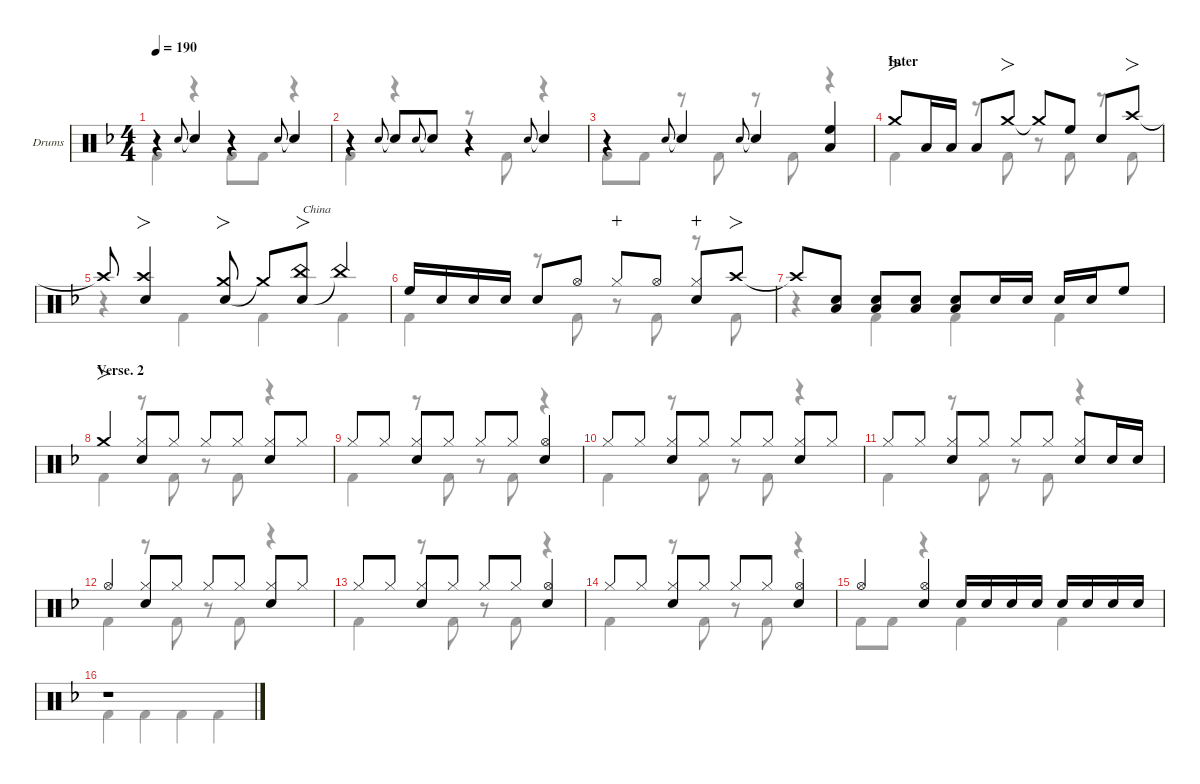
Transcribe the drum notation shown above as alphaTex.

\defaultSystemsLayout 4
\hideDynamics
\bracketExtendMode nobrackets
\firstSystemTrackNameOrientation horizontal
\track ("Drums" "Drums") {defaultSystemsLayout 4 instrument percussion}
\staff {score}
\articulation defaults
\voice
\ts (4 4)
\tempo 190
\clef neutral
\ks dminor
r.4{dy f} "Snare (hit) 2"{acc forcenatural}.8{gr onbeat} "Snare (hit) 2"{t acc forcenatural}.4 r.4 "Snare (hit) 2"{acc forcenatural}.8{gr onbeat} "Snare (hit) 2"{t acc forcenatural}.4 |
r.4 "Snare (hit) 2"{acc forcenatural}.8{gr onbeat} "Snare (hit) 2"{t acc forcenatural}.8 "Snare (hit) 2"{acc forcenatural}.8{gr onbeat} "Snare (hit) 2"{t acc forcenatural}.8 r.4 "Snare (hit) 2"{acc forcenatural}.8{gr onbeat} "Snare (hit) 2"{t acc forcenatural}.4 |
r.4 "Snare (hit) 2"{acc forcenatural}.8{gr onbeat} "Snare (hit) 2"{t acc forcenatural}.4 "Snare (hit) 2"{acc forcenatural}.8{gr onbeat} "Snare (hit) 2"{t acc forcenatural}.4 ("Low Tom (hit)"{acc forcenatural} "High Floor Tom (hit)"{acc forcenatural}).4 |
\section ("" "Inter")
"Crash medium (hit)"{acc forcenatural}.8{fo} "Low Tom (hit)"{acc forcenatural}.16 "Low Tom (hit)"{acc forcenatural}.16{beam split} "Low Tom (hit)"{acc forcenatural}.8 "Crash medium (hit)"{acc forcenatural}.8{fo} "Crash medium (hit)"{t acc forcenatural}.8 "High Floor Tom (hit)"{acc forcenatural}.8 "Snare (hit) 2"{acc forcenatural}.8 "Crash high (hit)"{acc forcenatural}.8{fo} |
"Crash high (hit)"{t acc forcenatural}.8 ("Snare (hit) 2"{acc forcenatural} "Crash high (hit)"{acc forcenatural}).4{fo} ("Snare (hit) 2"{acc forcenatural} "Crash medium (hit)"{acc forcenatural}).8{fo} "Crash medium (hit)"{t acc forcenatural}.8 ("Snare (hit) 2"{acc forcenatural} "China (hit)"{acc forcenatural}).8{fo txt "China"} "China (hit)"{t acc forcenatural}.4 |
"High Floor Tom (hit)"{acc forcenatural}.16 "Snare (hit) 2"{acc forcenatural}.16{dy mf} "Snare (hit) 2"{acc forcenatural}.16{dy f} "Snare (hit) 2"{acc forcenatural}.16{dy mf beam split} "Snare (hit) 2"{acc forcenatural}.8{dy f} "Hi-Hat (open)"{acc forcenatural}.8 "Hi-Hat (closed)"{acc forcenatural}.8{dy mp wahc} "Hi-Hat (open)"{acc forcenatural}.8{dy f} ("Hi-Hat (closed)"{acc forcenatural} "Snare (hit) 2"{acc forcenatural}).8{wahc} "Crash high (hit)"{acc forcenatural}.8{fo} |
"Crash high (hit)"{t acc forcenatural}.8 ("Snare (hit) 2"{acc forcenatural} "Low Tom (hit)"{acc forcenatural}).8 ("Snare (hit) 2"{acc forcenatural} "Low Tom (hit)"{acc forcenatural}).8 ("Snare (hit) 2"{acc forcenatural} "Low Tom (hit)"{acc forcenatural}).8 ("Snare (hit) 2"{acc forcenatural} "Low Tom (hit)"{acc forcenatural}).8 "Snare (hit) 2"{acc forcenatural}.16 "Snare (hit) 2"{acc forcenatural}.16{dy mf beam split} "Snare (hit) 2"{acc forcenatural}.16{dy f beam merge} "Snare (hit) 2"{acc forcenatural}.16{dy mf beam merge} "High Floor Tom (hit)"{acc forcenatural}.8{dy f} |
\section ("" "Verse. 2")
"Crash medium (hit)"{acc forcenatural}.4{fo} ("Hi-Hat (closed)"{acc forcenatural} "Snare (hit) 2"{acc forcenatural}).8 "Hi-Hat (closed)"{acc forcenatural}.8{dy mf} "Hi-Hat (closed)"{acc forcenatural}.8{dy f} "Hi-Hat (closed)"{acc forcenatural}.8{dy mf} ("Hi-Hat (closed)"{acc forcenatural} "Snare (hit) 2"{acc forcenatural}).8{dy f} "Hi-Hat (closed)"{acc forcenatural}.8{dy mf} |
"Hi-Hat (closed)"{acc forcenatural}.8{dy f} "Hi-Hat (closed)"{acc forcenatural}.8{dy mf} ("Hi-Hat (closed)"{acc forcenatural} "Snare (hit) 2"{acc forcenatural}).8{dy f} "Hi-Hat (closed)"{acc forcenatural}.8{dy mf} "Hi-Hat (closed)"{acc forcenatural}.8{dy f} "Hi-Hat (closed)"{acc forcenatural}.8{dy mf} ("Hi-Hat (open)"{acc forcenatural} "Snare (hit) 2"{acc forcenatural}).4{dy f} |
"Hi-Hat (closed)"{acc forcenatural}.8 "Hi-Hat (closed)"{acc forcenatural}.8{dy mf} ("Hi-Hat (closed)"{acc forcenatural} "Snare (hit) 2"{acc forcenatural}).8{dy f} "Hi-Hat (closed)"{acc forcenatural}.8{dy mf} "Hi-Hat (closed)"{acc forcenatural}.8{dy f} "Hi-Hat (closed)"{acc forcenatural}.8{dy mf} ("Hi-Hat (closed)"{acc forcenatural} "Snare (hit) 2"{acc forcenatural}).8{dy f} "Hi-Hat (closed)"{acc forcenatural}.8{dy mf} |
"Hi-Hat (closed)"{acc forcenatural}.8{dy f} "Hi-Hat (closed)"{acc forcenatural}.8{dy mf} ("Hi-Hat (closed)"{acc forcenatural} "Snare (hit) 2"{acc forcenatural}).8{dy f} "Hi-Hat (closed)"{acc forcenatural}.8{dy mf} "Hi-Hat (closed)"{acc forcenatural}.8{dy f} "Hi-Hat (closed)"{acc forcenatural}.8{dy mf beam split} ("Hi-Hat (closed)"{acc forcenatural} "Snare (hit) 2"{acc forcenatural}).8{dy f} "Snare (hit) 2"{acc forcenatural}.16{dy mf} "Snare (hit) 2"{acc forcenatural}.16 |
"Hi-Hat (open)"{acc forcenatural}.4{dy f} ("Hi-Hat (closed)"{acc forcenatural} "Snare (hit) 2"{acc forcenatural}).8 "Hi-Hat (closed)"{acc forcenatural}.8{dy mf} "Hi-Hat (closed)"{acc forcenatural}.8{dy f} "Hi-Hat (closed)"{acc forcenatural}.8{dy mf} ("Hi-Hat (closed)"{acc forcenatural} "Snare (hit) 2"{acc forcenatural}).8{dy f} "Hi-Hat (closed)"{acc forcenatural}.8{dy mf} |
"Hi-Hat (closed)"{acc forcenatural}.8{dy f} "Hi-Hat (closed)"{acc forcenatural}.8{dy mf} ("Hi-Hat (closed)"{acc forcenatural} "Snare (hit) 2"{acc forcenatural}).8{dy f} "Hi-Hat (closed)"{acc forcenatural}.8{dy mf} "Hi-Hat (closed)"{acc forcenatural}.8{dy f} "Hi-Hat (closed)"{acc forcenatural}.8{dy mf} ("Hi-Hat (open)"{acc forcenatural} "Snare (hit) 2"{acc forcenatural}).4{dy f} |
"Hi-Hat (closed)"{acc forcenatural}.8 "Hi-Hat (closed)"{acc forcenatural}.8{dy mf} ("Hi-Hat (closed)"{acc forcenatural} "Snare (hit) 2"{acc forcenatural}).8{dy f} "Hi-Hat (closed)"{acc forcenatural}.8{dy mf} "Hi-Hat (closed)"{acc forcenatural}.8{dy f} "Hi-Hat (closed)"{acc forcenatural}.8{dy mf} ("Hi-Hat (open)"{acc forcenatural} "Snare (hit) 2"{acc forcenatural}).4{dy f} |
"Hi-Hat (open)"{acc forcenatural}.4 ("Hi-Hat (open)"{acc forcenatural} "Snare (hit) 2"{acc forcenatural}).4 "Snare (hit) 2"{acc forcenatural}.16 "Snare (hit) 2"{acc forcenatural}.16{dy mf} "Snare (hit) 2"{acc forcenatural}.16{dy f} "Snare (hit) 2"{acc forcenatural}.16{dy mf beam split} "Snare (hit) 2"{acc forcenatural}.16{dy f} "Snare (hit) 2"{acc forcenatural}.16{dy mf} "Snare (hit) 2"{acc forcenatural}.16{dy f} "Snare (hit) 2"{acc forcenatural}.16{dy mf} |
r.1
\voice
\clef neutral
\ottava regular
\simile none
\ks dminor "Kick (hit) 2"{acc forcenatural}.4{dy f}
r.4 "Kick (hit) 2"{acc forcenatural}.8 "Kick (hit) 2"{acc forcenatural}.8 r.4 |
"Kick (hit) 2"{acc forcenatural}.4 r.4 r.8 "Kick (hit) 2"{acc forcenatural}.8 r.4 |
"Kick (hit) 2"{acc forcenatural}.8 "Kick (hit) 2"{acc forcenatural}.8 r.8 "Kick (hit) 2"{acc forcenatural}.8 r.8 "Kick (hit) 2"{acc forcenatural}.8 r.4 |
"Kick (hit) 2"{acc forcenatural}.4 r.8 "Kick (hit) 2"{acc forcenatural}.8 r.8 "Kick (hit) 2"{acc forcenatural}.8 r.8 "Kick (hit) 2"{acc forcenatural}.8 |
r.4 "Kick (hit) 2"{acc forcenatural}.4 "Kick (hit) 2"{acc forcenatural}.4 "Kick (hit) 2"{acc forcenatural}.4 |
"Kick (hit) 2"{acc forcenatural}.4 r.8 "Kick (hit) 2"{acc forcenatural}.8 r.8 "Kick (hit) 2"{acc forcenatural}.8 r.8 "Kick (hit) 2"{acc forcenatural}.8 |
r.4 "Kick (hit) 2"{acc forcenatural}.4 "Kick (hit) 2"{acc forcenatural}.4 "Kick (hit) 2"{acc forcenatural}.4 |
"Kick (hit) 2"{acc forcenatural}.4 r.8 "Kick (hit) 2"{acc forcenatural}.8 r.8 "Kick (hit) 2"{acc forcenatural}.8 r.4 |
"Kick (hit) 2"{acc forcenatural}.4 r.8 "Kick (hit) 2"{acc forcenatural}.8 r.8 "Kick (hit) 2"{acc forcenatural}.8 r.4 |
"Kick (hit) 2"{acc forcenatural}.4 r.8 "Kick (hit) 2"{acc forcenatural}.8 r.8 "Kick (hit) 2"{acc forcenatural}.8 r.4 |
"Kick (hit) 2"{acc forcenatural}.4 r.8 "Kick (hit) 2"{acc forcenatural}.8 r.8 "Kick (hit) 2"{acc forcenatural}.8 r.4 |
"Kick (hit) 2"{acc forcenatural}.4 r.8 "Kick (hit) 2"{acc forcenatural}.8 r.8 "Kick (hit) 2"{acc forcenatural}.8 r.4 |
"Kick (hit) 2"{acc forcenatural}.4 r.8 "Kick (hit) 2"{acc forcenatural}.8 r.8 "Kick (hit) 2"{acc forcenatural}.8 r.4 |
"Kick (hit) 2"{acc forcenatural}.4 r.8 "Kick (hit) 2"{acc forcenatural}.8 r.8 "Kick (hit) 2"{acc forcenatural}.8 r.4 |
"Kick (hit) 2"{acc forcenatural}.8 "Kick (hit) 2"{acc forcenatural}.8 r.4 "Kick (hit) 2"{acc forcenatural}.4 "Kick (hit) 2"{acc forcenatural}.4 |
"Kick (hit) 2"{acc forcenatural}.4 "Kick (hit) 2"{acc forcenatural}.4 "Kick (hit) 2"{acc forcenatural}.4 "Kick (hit) 2"{acc forcenatural}.4
